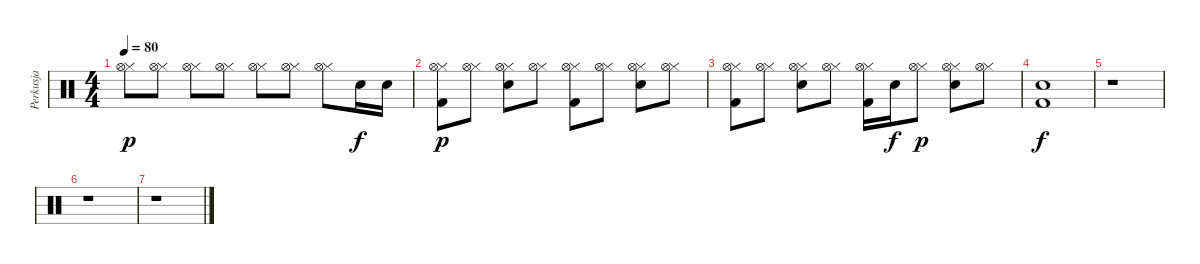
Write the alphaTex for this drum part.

\track ("Perkusja" "Perkusja") {instrument percussion}
\staff {score}
\articulation defaults
\ts (4 4)
\tempo 80
\clef neutral
\ks c
("Hi-Hat (closed)" "Hi-Hat (open)").8{dy p} ("Hi-Hat (closed)" "Hi-Hat (open)").8 ("Hi-Hat (closed)" "Hi-Hat (open)").8 ("Hi-Hat (closed)" "Hi-Hat (open)").8 ("Hi-Hat (closed)" "Hi-Hat (open)").8 ("Hi-Hat (closed)" "Hi-Hat (open)").8 ("Hi-Hat (closed)" "Hi-Hat (open)").8 "Electric Snare (hit)".16{dy f} "Electric Snare (hit)".16 |
("Kick (hit) 2" "Hi-Hat (closed)" "Hi-Hat (open)").8{dy p} ("Hi-Hat (closed)" "Hi-Hat (open)").8 ("Electric Snare (hit)" "Hi-Hat (closed)" "Hi-Hat (open)").8 ("Hi-Hat (closed)" "Hi-Hat (open)").8 ("Kick (hit) 2" "Hi-Hat (closed)" "Hi-Hat (open)").8 ("Hi-Hat (closed)" "Hi-Hat (open)").8 ("Electric Snare (hit)" "Hi-Hat (closed)" "Hi-Hat (open)").8 ("Hi-Hat (closed)" "Hi-Hat (open)").8 |
("Kick (hit) 2" "Hi-Hat (closed)" "Hi-Hat (open)").8 ("Hi-Hat (closed)" "Hi-Hat (open)").8 ("Electric Snare (hit)" "Hi-Hat (closed)" "Hi-Hat (open)").8 ("Hi-Hat (closed)" "Hi-Hat (open)").8 ("Kick (hit) 2" "Hi-Hat (closed)" "Hi-Hat (open)").16 "Electric Snare (hit)".16{dy f} ("Hi-Hat (closed)" "Hi-Hat (open)").8{dy p} ("Electric Snare (hit)" "Hi-Hat (closed)" "Hi-Hat (open)").8 ("Hi-Hat (closed)" "Hi-Hat (open)").8 |
("Kick (hit) 2" "Electric Snare (hit)").1{dy f} |
r.1 |
r.1 |
r.1
